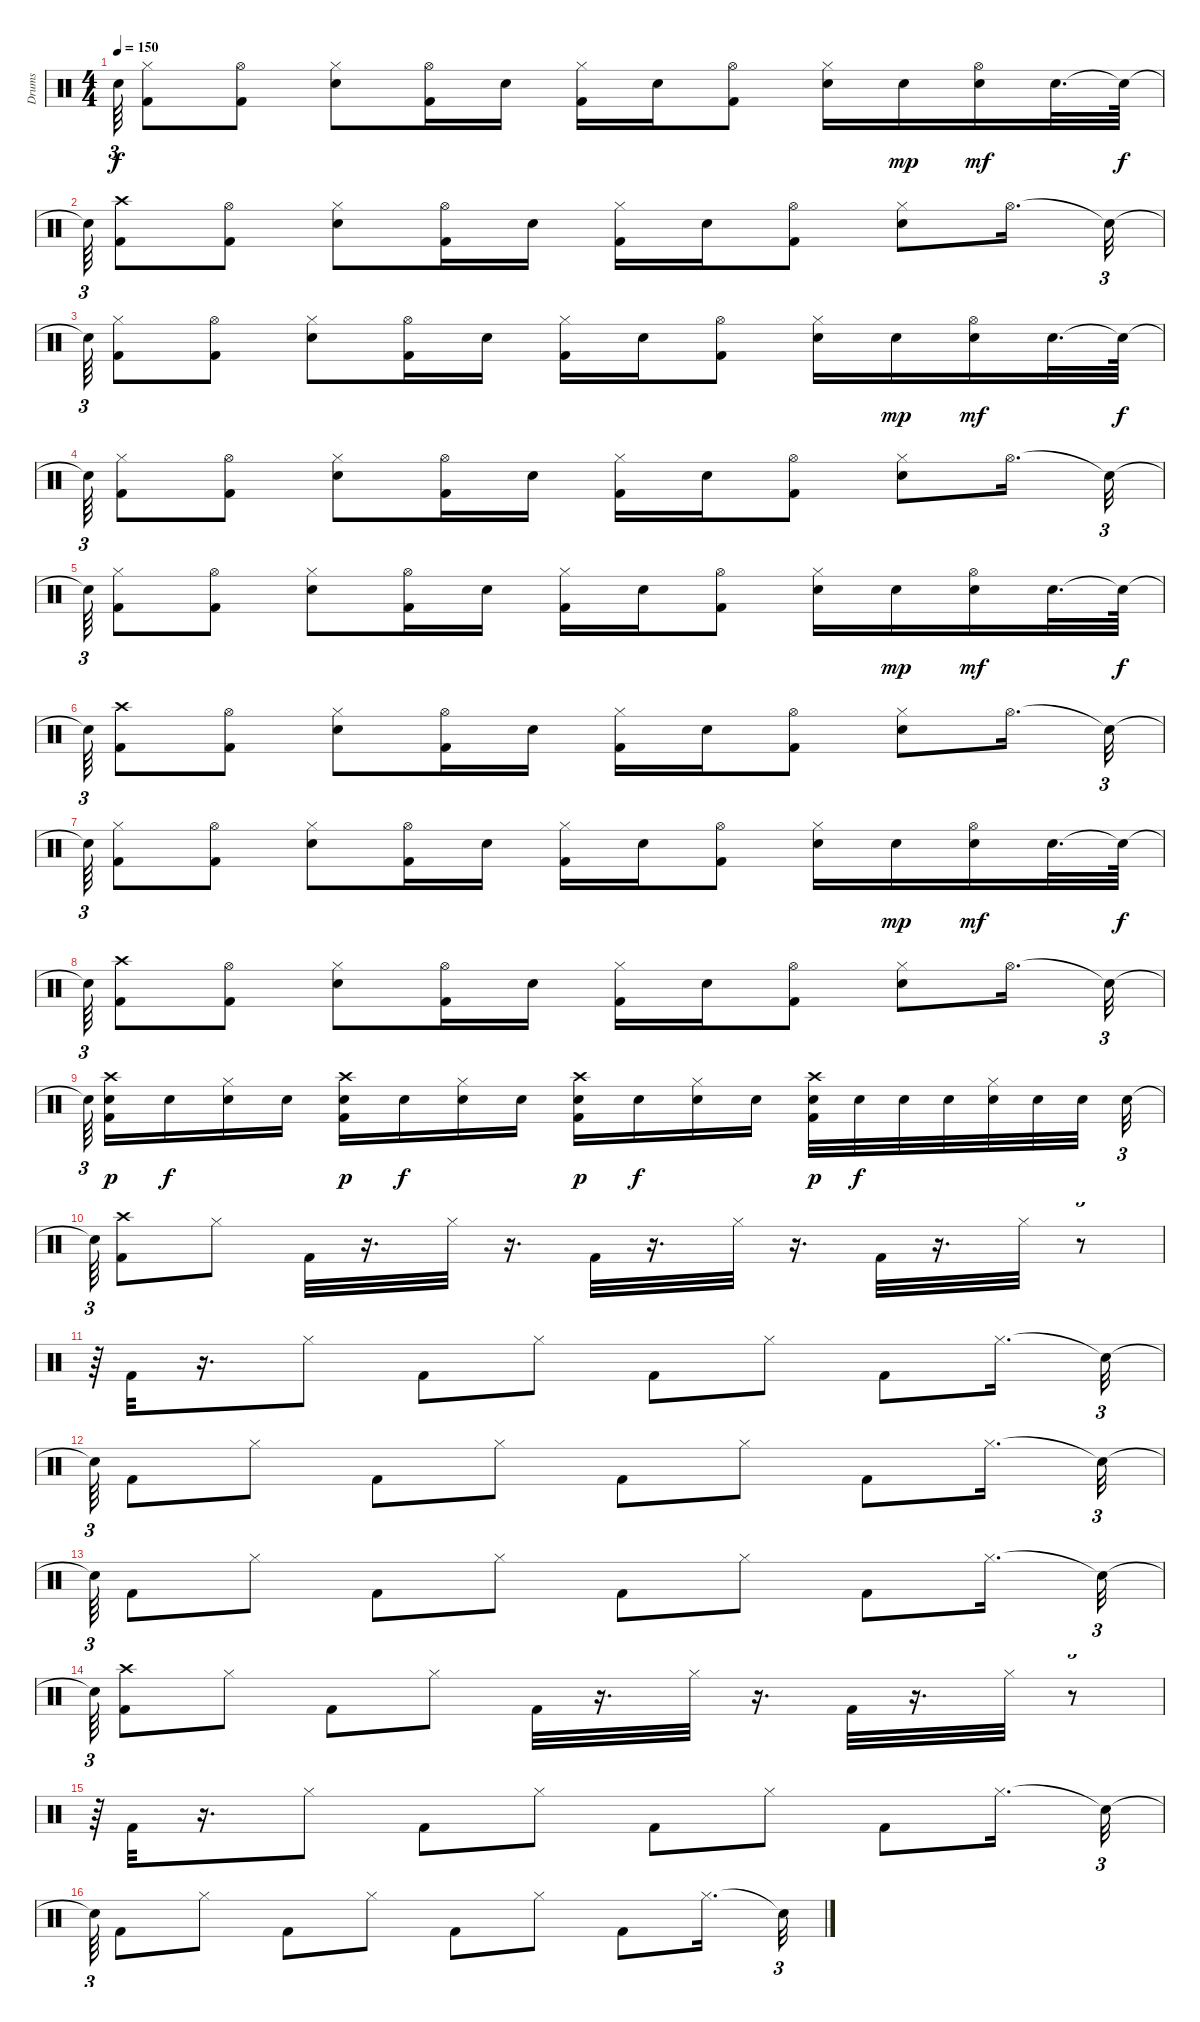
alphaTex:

\track ("Drums" "Drums") {instrument percussion}
\staff {score}
\articulation defaults
\ts (4 4)
\tempo 150
\clef neutral
\ks c "Snare (hit)"{t}.64{tu (3 2) dy f}
("Hi-Hat (closed)" "Kick (hit) 2").8 ("Hi-Hat (open)" "Kick (hit) 2").8 ("Electric Snare (hit)" "Hi-Hat (closed)").8 ("Hi-Hat (open)" "Kick (hit) 2").16 "Electric Snare (hit)".16 ("Hi-Hat (closed)" "Kick (hit) 2").16 "Electric Snare (hit)".16 ("Hi-Hat (open)" "Kick (hit) 2").8 ("Hi-Hat (closed)" "Electric Snare (hit)").16 "Electric Snare (hit)".16{dy mp} ("Hi-Hat (open)" "Electric Snare (hit)").16{dy mf} "Electric Snare (hit)".32{d} "Snare (hit)"{t}.64{dy f} |
"Snare (hit)"{t}.64{tu (3 2)} ("Crash high (hit)" "Kick (hit) 2").8 ("Hi-Hat (open)" "Kick (hit) 2").8 ("Hi-Hat (closed)" "Electric Snare (hit)").8 ("Kick (hit) 2" "Hi-Hat (open)").16 "Electric Snare (hit)".16 ("Kick (hit) 2" "Hi-Hat (closed)").16 "Electric Snare (hit)".16 ("Hi-Hat (open)" "Kick (hit) 2").8 ("Electric Snare (hit)" "Hi-Hat (closed)").8 "Hi-Hat (open)".16{d} "Snare (hit)"{t}.32{tu (3 2)} |
"Snare (hit)"{t}.64{tu (3 2)} ("Hi-Hat (closed)" "Kick (hit) 2").8 ("Hi-Hat (open)" "Kick (hit) 2").8 ("Electric Snare (hit)" "Hi-Hat (closed)").8 ("Hi-Hat (open)" "Kick (hit) 2").16 "Electric Snare (hit)".16 ("Hi-Hat (closed)" "Kick (hit) 2").16 "Electric Snare (hit)".16 ("Hi-Hat (open)" "Kick (hit) 2").8 ("Hi-Hat (closed)" "Electric Snare (hit)").16 "Electric Snare (hit)".16{dy mp} ("Hi-Hat (open)" "Electric Snare (hit)").16{dy mf} "Electric Snare (hit)".32{d} "Snare (hit)"{t}.64{dy f} |
"Snare (hit)"{t}.64{tu (3 2)} ("Hi-Hat (closed)" "Kick (hit) 2").8 ("Hi-Hat (open)" "Kick (hit) 2").8 ("Hi-Hat (closed)" "Electric Snare (hit)").8 ("Kick (hit) 2" "Hi-Hat (open)").16 "Electric Snare (hit)".16 ("Kick (hit) 2" "Hi-Hat (closed)").16 "Electric Snare (hit)".16 ("Hi-Hat (open)" "Kick (hit) 2").8 ("Electric Snare (hit)" "Hi-Hat (closed)").8 "Hi-Hat (open)".16{d} "Snare (hit)"{t}.32{tu (3 2)} |
"Snare (hit)"{t}.64{tu (3 2)} ("Hi-Hat (closed)" "Kick (hit) 2").8 ("Hi-Hat (open)" "Kick (hit) 2").8 ("Electric Snare (hit)" "Hi-Hat (closed)").8 ("Hi-Hat (open)" "Kick (hit) 2").16 "Electric Snare (hit)".16 ("Hi-Hat (closed)" "Kick (hit) 2").16 "Electric Snare (hit)".16 ("Hi-Hat (open)" "Kick (hit) 2").8 ("Hi-Hat (closed)" "Electric Snare (hit)").16 "Electric Snare (hit)".16{dy mp} ("Hi-Hat (open)" "Electric Snare (hit)").16{dy mf} "Electric Snare (hit)".32{d} "Snare (hit)"{t}.64{dy f} |
"Snare (hit)"{t}.64{tu (3 2)} ("Crash high (hit)" "Kick (hit) 2").8 ("Hi-Hat (open)" "Kick (hit) 2").8 ("Hi-Hat (closed)" "Electric Snare (hit)").8 ("Kick (hit) 2" "Hi-Hat (open)").16 "Electric Snare (hit)".16 ("Kick (hit) 2" "Hi-Hat (closed)").16 "Electric Snare (hit)".16 ("Hi-Hat (open)" "Kick (hit) 2").8 ("Electric Snare (hit)" "Hi-Hat (closed)").8 "Hi-Hat (open)".16{d} "Snare (hit)"{t}.32{tu (3 2)} |
"Snare (hit)"{t}.64{tu (3 2)} ("Hi-Hat (closed)" "Kick (hit) 2").8 ("Hi-Hat (open)" "Kick (hit) 2").8 ("Electric Snare (hit)" "Hi-Hat (closed)").8 ("Hi-Hat (open)" "Kick (hit) 2").16 "Electric Snare (hit)".16 ("Hi-Hat (closed)" "Kick (hit) 2").16 "Electric Snare (hit)".16 ("Hi-Hat (open)" "Kick (hit) 2").8 ("Hi-Hat (closed)" "Electric Snare (hit)").16 "Electric Snare (hit)".16{dy mp} ("Hi-Hat (open)" "Electric Snare (hit)").16{dy mf} "Electric Snare (hit)".32{d} "Snare (hit)"{t}.64{dy f} |
"Snare (hit)"{t}.64{tu (3 2)} ("Crash high (hit)" "Kick (hit) 2").8 ("Hi-Hat (open)" "Kick (hit) 2").8 ("Hi-Hat (closed)" "Electric Snare (hit)").8 ("Kick (hit) 2" "Hi-Hat (open)").16 "Electric Snare (hit)".16 ("Kick (hit) 2" "Hi-Hat (closed)").16 "Electric Snare (hit)".16 ("Hi-Hat (open)" "Kick (hit) 2").8 ("Electric Snare (hit)" "Hi-Hat (closed)").8 "Hi-Hat (open)".16{d} "Snare (hit)"{t}.32{tu (3 2)} |
"Snare (hit)"{t}.64{tu (3 2)} ("Electric Snare (hit)" "Crash high (hit)" "Kick (hit) 2").16{dy p} "Electric Snare (hit)".16{dy f} ("Electric Snare (hit)" "Hi-Hat (closed)").16 "Electric Snare (hit)".16 ("Electric Snare (hit)" "Kick (hit) 2" "Crash high (hit)").16{dy p} "Electric Snare (hit)".16{dy f} ("Electric Snare (hit)" "Hi-Hat (closed)").16 "Electric Snare (hit)".16 ("Electric Snare (hit)" "Kick (hit) 2" "Crash high (hit)").16{dy p} "Electric Snare (hit)".16{dy f} ("Electric Snare (hit)" "Hi-Hat (closed)").16 "Electric Snare (hit)".16 ("Electric Snare (hit)" "Kick (hit) 2" "Crash high (hit)").32{dy p} "Electric Snare (hit)".32{dy f} "Electric Snare (hit)".32 "Electric Snare (hit)".32 ("Electric Snare (hit)" "Hi-Hat (closed)").32 "Electric Snare (hit)".32 "Electric Snare (hit)".32 "Electric Snare (hit)".32{tu (3 2)} |
"Snare (hit)"{t}.64{tu (3 2)} ("Crash high (hit)" "Kick (hit) 2").8 "Hi-Hat (closed)".8 "Kick (hit) 2".32 r.16{d} "Hi-Hat (closed)".32 r.16{d} "Kick (hit) 2".32 r.16{d} "Hi-Hat (closed)".32 r.16{d} "Kick (hit) 2".32 r.16{d} "Hi-Hat (closed)".32 r.8{tu (3 2)} |
r.64{tu (3 2)} "Kick (hit) 2".32 r.16{d} "Hi-Hat (closed)".8 "Kick (hit) 2".8 "Hi-Hat (closed)".8 "Kick (hit) 2".8 "Hi-Hat (closed)".8 "Kick (hit) 2".8 "Hi-Hat (closed)".16{d} "Snare (hit)"{t}.32{tu (3 2)} |
"Snare (hit)"{t}.64{tu (3 2)} "Kick (hit) 2".8 "Hi-Hat (closed)".8 "Kick (hit) 2".8 "Hi-Hat (closed)".8 "Kick (hit) 2".8 "Hi-Hat (closed)".8 "Kick (hit) 2".8 "Hi-Hat (closed)".16{d} "Snare (hit)"{t}.32{tu (3 2)} |
"Snare (hit)"{t}.64{tu (3 2)} "Kick (hit) 2".8 "Hi-Hat (closed)".8 "Kick (hit) 2".8 "Hi-Hat (closed)".8 "Kick (hit) 2".8 "Hi-Hat (closed)".8 "Kick (hit) 2".8 "Hi-Hat (closed)".16{d} "Snare (hit)"{t}.32{tu (3 2)} |
"Snare (hit)"{t}.64{tu (3 2)} ("Crash high (hit)" "Kick (hit) 2").8 "Hi-Hat (closed)".8 "Kick (hit) 2".8 "Hi-Hat (closed)".8 "Kick (hit) 2".32 r.16{d} "Hi-Hat (closed)".32 r.16{d} "Kick (hit) 2".32 r.16{d} "Hi-Hat (closed)".32 r.8{tu (3 2)} |
r.64{tu (3 2)} "Kick (hit) 2".32 r.16{d} "Hi-Hat (closed)".8 "Kick (hit) 2".8 "Hi-Hat (closed)".8 "Kick (hit) 2".8 "Hi-Hat (closed)".8 "Kick (hit) 2".8 "Hi-Hat (closed)".16{d} "Snare (hit)"{t}.32{tu (3 2)} |
"Snare (hit)"{t}.64{tu (3 2)} "Kick (hit) 2".8 "Hi-Hat (closed)".8 "Kick (hit) 2".8 "Hi-Hat (closed)".8 "Kick (hit) 2".8 "Hi-Hat (closed)".8 "Kick (hit) 2".8 "Hi-Hat (closed)".16{d} "Snare (hit)"{t}.32{tu (3 2)}
